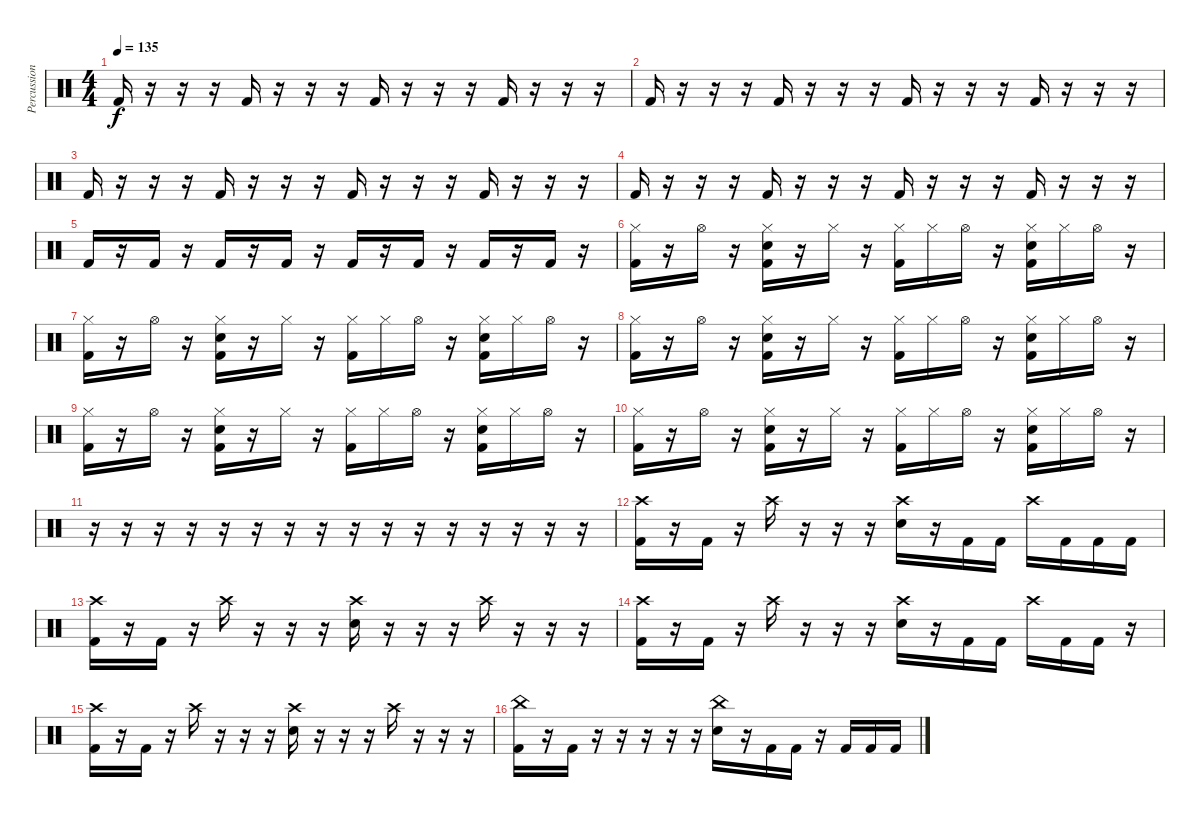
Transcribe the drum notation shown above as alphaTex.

\track ("Percussion" "Percussion") {instrument percussion}
\staff {score}
\articulation defaults
\ts (4 4)
\tempo 135
\clef neutral
\ks c "Kick (hit) 2".16{dy f}
r.16 r.16 r.16 "Kick (hit) 2".16 r.16 r.16 r.16 "Kick (hit) 2".16 r.16 r.16 r.16 "Kick (hit) 2".16 r.16 r.16 r.16 |
"Kick (hit) 2".16 r.16 r.16 r.16 "Kick (hit) 2".16 r.16 r.16 r.16 "Kick (hit) 2".16 r.16 r.16 r.16 "Kick (hit) 2".16 r.16 r.16 r.16 |
"Kick (hit) 2".16 r.16 r.16 r.16 "Kick (hit) 2".16 r.16 r.16 r.16 "Kick (hit) 2".16 r.16 r.16 r.16 "Kick (hit) 2".16 r.16 r.16 r.16 |
"Kick (hit) 2".16 r.16 r.16 r.16 "Kick (hit) 2".16 r.16 r.16 r.16 "Kick (hit) 2".16 r.16 r.16 r.16 "Kick (hit) 2".16 r.16 r.16 r.16 |
"Kick (hit) 2".16 r.16 "Kick (hit) 2".16 r.16 "Kick (hit) 2".16 r.16 "Kick (hit) 2".16 r.16 "Kick (hit) 2".16 r.16 "Kick (hit) 2".16 r.16 "Kick (hit) 2".16 r.16 "Kick (hit) 2".16 r.16 |
("Hi-Hat (closed)" "Kick (hit) 2").16 r.16 "Hi-Hat (open)".16 r.16 ("Hi-Hat (closed)" "Hand Clap (hit)" "Kick (hit) 2").16 r.16 "Hi-Hat (closed)".16 r.16 ("Hi-Hat (closed)" "Kick (hit) 2").16 "Hi-Hat (closed)".16 "Hi-Hat (open)".16 r.16 ("Hi-Hat (closed)" "Hand Clap (hit)" "Kick (hit) 2").16 "Hi-Hat (closed)".16 "Hi-Hat (open)".16 r.16 |
("Hi-Hat (closed)" "Kick (hit) 2").16 r.16 "Hi-Hat (open)".16 r.16 ("Hi-Hat (closed)" "Hand Clap (hit)" "Kick (hit) 2").16 r.16 "Hi-Hat (closed)".16 r.16 ("Hi-Hat (closed)" "Kick (hit) 2").16 "Hi-Hat (closed)".16 "Hi-Hat (open)".16 r.16 ("Hi-Hat (closed)" "Hand Clap (hit)" "Kick (hit) 2").16 "Hi-Hat (closed)".16 "Hi-Hat (open)".16 r.16 |
("Hi-Hat (closed)" "Kick (hit) 2").16 r.16 "Hi-Hat (open)".16 r.16 ("Hi-Hat (closed)" "Hand Clap (hit)" "Kick (hit) 2").16 r.16 "Hi-Hat (closed)".16 r.16 ("Hi-Hat (closed)" "Kick (hit) 2").16 "Hi-Hat (closed)".16 "Hi-Hat (open)".16 r.16 ("Hi-Hat (closed)" "Hand Clap (hit)" "Kick (hit) 2").16 "Hi-Hat (closed)".16 "Hi-Hat (open)".16 r.16 |
("Hi-Hat (closed)" "Kick (hit) 2").16 r.16 "Hi-Hat (open)".16 r.16 ("Hi-Hat (closed)" "Hand Clap (hit)" "Kick (hit) 2").16 r.16 "Hi-Hat (closed)".16 r.16 ("Hi-Hat (closed)" "Kick (hit) 2").16 "Hi-Hat (closed)".16 "Hi-Hat (open)".16 r.16 ("Hi-Hat (closed)" "Hand Clap (hit)" "Kick (hit) 2").16 "Hi-Hat (closed)".16 "Hi-Hat (open)".16 r.16 |
("Hi-Hat (closed)" "Kick (hit) 2").16 r.16 "Hi-Hat (open)".16 r.16 ("Hi-Hat (closed)" "Hand Clap (hit)" "Kick (hit) 2").16 r.16 "Hi-Hat (closed)".16 r.16 ("Hi-Hat (closed)" "Kick (hit) 2").16 "Hi-Hat (closed)".16 "Hi-Hat (open)".16 r.16 ("Hi-Hat (closed)" "Hand Clap (hit)" "Kick (hit) 2").16 "Hi-Hat (closed)".16 "Hi-Hat (open)".16 r.16 |
r.16 r.16 r.16 r.16 r.16 r.16 r.16 r.16 r.16 r.16 r.16 r.16 r.16 r.16 r.16 r.16 |
("Crash high (hit)" "Kick (hit) 2").16 r.16 "Kick (hit) 2".16 r.16 "Crash high (hit)".16 r.16 r.16 r.16 ("Crash high (hit)" "Electric Snare (hit)").16 r.16 "Kick (hit) 2".16 "Kick (hit) 2".16 "Crash high (hit)".16 "Kick (hit) 2".16 "Kick (hit) 2".16 "Kick (hit) 2".16 |
("Crash high (hit)" "Kick (hit) 2").16 r.16 "Kick (hit) 2".16 r.16 "Crash high (hit)".16 r.16 r.16 r.16 ("Crash high (hit)" "Electric Snare (hit)").16 r.16 r.16 r.16 "Crash high (hit)".16 r.16 r.16 r.16 |
("Crash high (hit)" "Kick (hit) 2").16 r.16 "Kick (hit) 2".16 r.16 "Crash high (hit)".16 r.16 r.16 r.16 ("Crash high (hit)" "Electric Snare (hit)").16 r.16 "Kick (hit) 2".16 "Kick (hit) 2".16 "Crash high (hit)".16 "Kick (hit) 2".16 "Kick (hit) 2".16 r.16 |
("Crash high (hit)" "Kick (hit) 2").16 r.16 "Kick (hit) 2".16 r.16 "Crash high (hit)".16 r.16 r.16 r.16 ("Crash high (hit)" "Electric Snare (hit)").16 r.16 r.16 r.16 "Crash high (hit)".16 r.16 r.16 r.16 |
("China (hit)" "Kick (hit) 2").16 r.16 "Kick (hit) 2".16 r.16 r.16 r.16 r.16 r.16 ("China (hit)" "Electric Snare (hit)").16 r.16 "Kick (hit) 2".16 "Kick (hit) 2".16 r.16 "Kick (hit) 2".16 "Kick (hit) 2".16 "Kick (hit) 2".16
